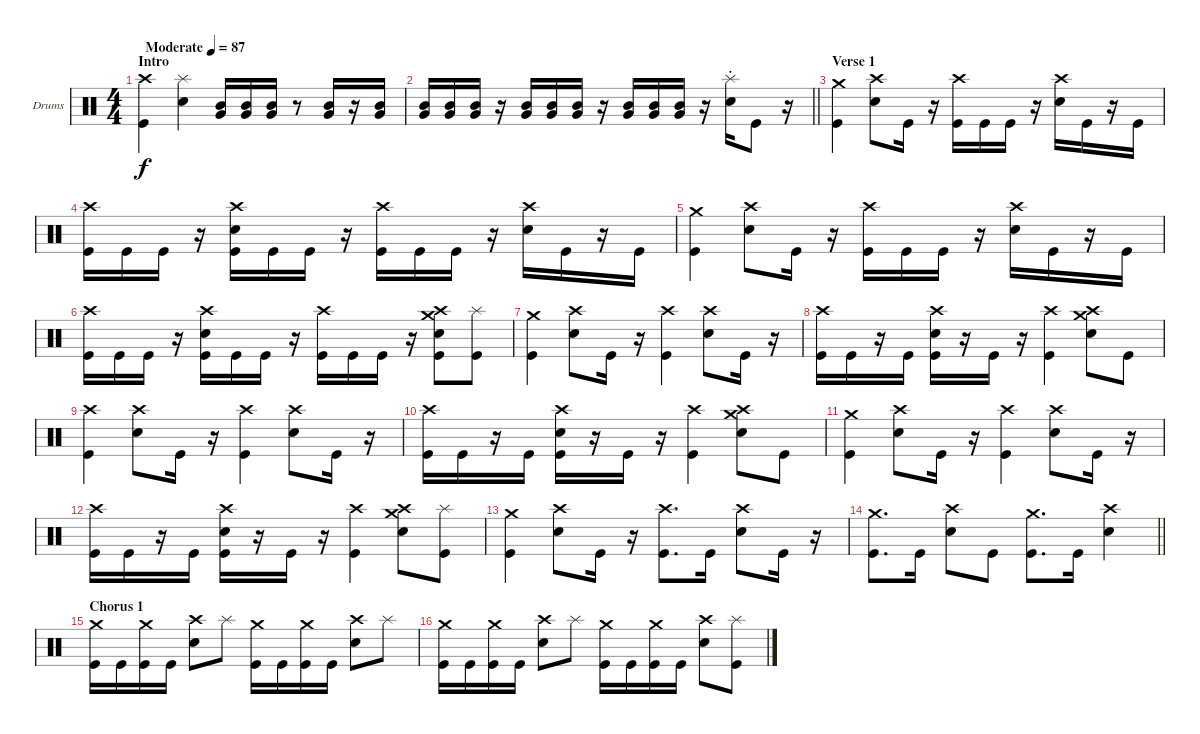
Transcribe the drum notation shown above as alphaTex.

\bracketExtendMode groupsimilarinstruments
\firstSystemTrackNameOrientation horizontal
\otherSystemsTrackNameOrientation horizontal
\track ("Drumkit" "Drums") {instrument percussion}
\staff {score}
\articulation defaults
\ts (4 4)
\beaming (8 2 2 2 2)
\section ("" "Intro")
\tempo (87 "Moderate")
\clef neutral
\ks c
("Crash high (hit)" "Kick (hit)").4{dy f} ("Splash (hit)" "Snare (hit) 2").4 ("Mid Tom (hit)" "Very Low Tom (hit)").16 ("Mid Tom (hit)" "Very Low Tom (hit)").16 ("Mid Tom (hit)" "Very Low Tom (hit)").16 r.8 ("Mid Tom (hit)" "Very Low Tom (hit)").16 r.16 ("Mid Tom (hit)" "Very Low Tom (hit)").16 |
\barLineRight lightlight
("Mid Tom (hit)" "Very Low Tom (hit)").16 ("Mid Tom (hit)" "Very Low Tom (hit)").16 ("Mid Tom (hit)" "Very Low Tom (hit)").16 r.16 ("Mid Tom (hit)" "Very Low Tom (hit)").16 ("Mid Tom (hit)" "Very Low Tom (hit)").16 ("Mid Tom (hit)" "Very Low Tom (hit)").16 r.16 ("Mid Tom (hit)" "Very Low Tom (hit)").16 ("Mid Tom (hit)" "Very Low Tom (hit)").16 ("Mid Tom (hit)" "Very Low Tom (hit)").16 r.16 ("Splash (hit)"{st} "Snare (hit) 2").16 "Kick (hit)".8 r.16 |
\section ("" "Verse 1")
("Crash medium (hit)" "Kick (hit)").4 ("Crash high (hit)" "Snare (hit) 2").8 "Kick (hit)".16 r.16 ("Crash high (hit)" "Kick (hit)").16 "Kick (hit)".16 "Kick (hit)".16 r.16 ("Crash high (hit)" "Snare (hit) 2").16 "Kick (hit)".16 r.16 "Kick (hit)".16 |
("Crash high (hit)" "Kick (hit)").16 "Kick (hit)".16 "Kick (hit)".16 r.16 ("Crash high (hit)" "Snare (hit) 2" "Kick (hit)").16 "Kick (hit)".16 "Kick (hit)".16 r.16 ("Crash high (hit)" "Kick (hit)").16 "Kick (hit)".16 "Kick (hit)".16 r.16 ("Crash high (hit)" "Snare (hit) 2").16 "Kick (hit)".16 r.16 "Kick (hit)".16 |
("Crash medium (hit)" "Kick (hit)").4 ("Crash high (hit)" "Snare (hit) 2").8 "Kick (hit)".16 r.16 ("Crash high (hit)" "Kick (hit)").16 "Kick (hit)".16 "Kick (hit)".16 r.16 ("Crash high (hit)" "Snare (hit) 2").16 "Kick (hit)".16 r.16 "Kick (hit)".16 |
("Crash high (hit)" "Kick (hit)").16 "Kick (hit)".16 "Kick (hit)".16 r.16 ("Crash high (hit)" "Snare (hit) 2" "Kick (hit)").16 "Kick (hit)".16 "Kick (hit)".16 r.16 ("Crash high (hit)" "Kick (hit)").16 "Kick (hit)".16 "Kick (hit)".16 r.16 ("Crash medium (hit)" "Crash high (hit)" "Snare (hit) 2" "Kick (hit)").8 ("Splash (hit)" "Kick (hit)").8 |
("Crash medium (hit)" "Kick (hit)").4 ("Crash high (hit)" "Snare (hit) 2").8 "Kick (hit)".16 r.16 ("Crash high (hit)" "Kick (hit)").4 ("Crash high (hit)" "Snare (hit) 2").8 "Kick (hit)".16 r.16 |
("Crash high (hit)" "Kick (hit)").16 "Kick (hit)".16 r.16 "Kick (hit)".16 ("Crash high (hit)" "Snare (hit) 2" "Kick (hit)").16 r.16 "Kick (hit)".16 r.16 ("Crash high (hit)" "Kick (hit)").4 ("Crash medium (hit)" "Crash high (hit)" "Snare (hit) 2").8 "Kick (hit)".8 |
("Crash high (hit)" "Kick (hit)").4 ("Crash high (hit)" "Snare (hit) 2").8 "Kick (hit)".16 r.16 ("Crash high (hit)" "Kick (hit)").4 ("Crash high (hit)" "Snare (hit) 2").8 "Kick (hit)".16 r.16 |
("Crash high (hit)" "Kick (hit)").16 "Kick (hit)".16 r.16 "Kick (hit)".16 ("Crash high (hit)" "Snare (hit) 2" "Kick (hit)").16 r.16 "Kick (hit)".16 r.16 ("Crash high (hit)" "Kick (hit)").4 ("Crash medium (hit)" "Crash high (hit)" "Snare (hit) 2").8 "Kick (hit)".8 |
("Crash medium (hit)" "Kick (hit)").4 ("Crash high (hit)" "Snare (hit) 2").8 "Kick (hit)".16 r.16 ("Crash high (hit)" "Kick (hit)").4 ("Crash high (hit)" "Snare (hit) 2").8 "Kick (hit)".16 r.16 |
("Crash high (hit)" "Kick (hit)").16 "Kick (hit)".16 r.16 "Kick (hit)".16 ("Crash high (hit)" "Snare (hit) 2" "Kick (hit)").16 r.16 "Kick (hit)".16 r.16 ("Crash high (hit)" "Kick (hit)").4 ("Crash medium (hit)" "Crash high (hit)" "Snare (hit) 2").8 ("Splash (hit)" "Kick (hit)").8 |
("Crash medium (hit)" "Kick (hit)").4 ("Crash high (hit)" "Snare (hit) 2").8 "Kick (hit)".16 r.16 ("Crash high (hit)" "Kick (hit)").8{d} "Kick (hit)".16 ("Crash high (hit)" "Snare (hit) 2").8 "Kick (hit)".16 r.16 |
\barLineRight lightlight
("Crash medium (hit)" "Kick (hit)").8{d} "Kick (hit)".16 ("Crash high (hit)" "Snare (hit) 2").8 "Kick (hit)".8 ("Crash medium (hit)" "Kick (hit)").8{d} "Kick (hit)".16 ("Crash high (hit)" "Snare (hit) 2").4 |
\section ("" "Chorus 1")
("Crash medium (hit)" "Kick (hit)").16 "Kick (hit)".16 ("Crash medium (hit)" "Kick (hit)").16 "Kick (hit)".16 ("Crash high (hit)" "Snare (hit) 2").8 "Splash (hit)".8 ("Crash medium (hit)" "Kick (hit)").16 "Kick (hit)".16 ("Crash medium (hit)" "Kick (hit)").16 "Kick (hit)".16 ("Crash high (hit)" "Snare (hit) 2").8 "Splash (hit)".8 |
("Crash medium (hit)" "Kick (hit)").16 "Kick (hit)".16 ("Crash medium (hit)" "Kick (hit)").16 "Kick (hit)".16 ("Crash high (hit)" "Snare (hit) 2").8 "Splash (hit)".8 ("Crash medium (hit)" "Kick (hit)").16 "Kick (hit)".16 ("Crash medium (hit)" "Kick (hit)").16 "Kick (hit)".16 ("Crash high (hit)" "Snare (hit) 2").8 ("Splash (hit)" "Kick (hit)").8
